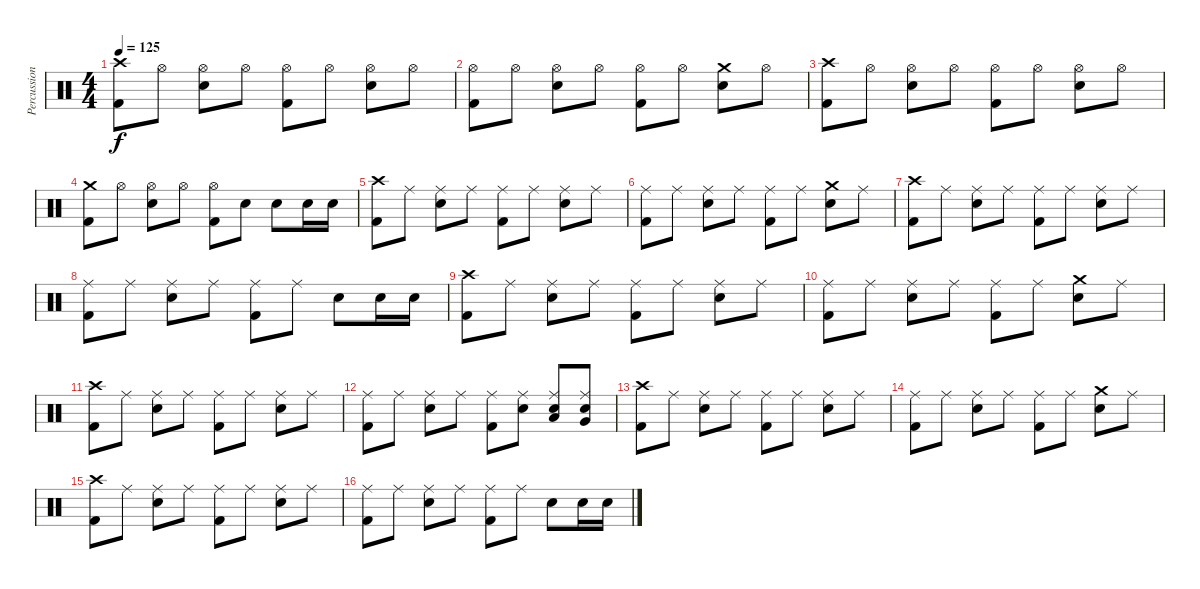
\track ("Percussion" "Percussion") {instrument percussion}
\staff {score}
\articulation defaults
\ts (4 4)
\tempo 125
\clef neutral
\ks c
("Crash high (hit)" "Kick (hit) 2").8{dy f} "Hi-Hat (open)".8 ("Hi-Hat (open)" "Snare (hit) 2").8 "Hi-Hat (open)".8 ("Hi-Hat (open)" "Kick (hit) 2").8 "Hi-Hat (open)".8 ("Hi-Hat (open)" "Snare (hit) 2").8 "Hi-Hat (open)".8 |
("Hi-Hat (open)" "Kick (hit) 2").8 "Hi-Hat (open)".8 ("Hi-Hat (open)" "Snare (hit) 2").8 "Hi-Hat (open)".8 ("Hi-Hat (open)" "Kick (hit) 2").8 "Hi-Hat (open)".8 ("Crash medium (hit)" "Snare (hit) 2").8 "Hi-Hat (open)".8 |
("Crash high (hit)" "Kick (hit) 2").8 "Hi-Hat (open)".8 ("Hi-Hat (open)" "Snare (hit) 2").8 "Hi-Hat (open)".8 ("Hi-Hat (open)" "Kick (hit) 2").8 "Hi-Hat (open)".8 ("Hi-Hat (open)" "Snare (hit) 2").8 "Hi-Hat (open)".8 |
("Crash medium (hit)" "Kick (hit) 2").8 "Hi-Hat (open)".8 ("Hi-Hat (open)" "Snare (hit) 2").8 "Hi-Hat (open)".8 ("Hi-Hat (open)" "Kick (hit) 2").8 "Snare (hit) 2".8 "Snare (hit) 2".8 "Snare (hit) 2".16 "Snare (hit) 2".16 |
("Crash high (hit)" "Kick (hit) 2").8 "Ride (middle)".8 ("Ride (middle)" "Snare (hit) 2").8 "Ride (middle)".8 ("Ride (middle)" "Kick (hit) 2").8 "Ride (middle)".8 ("Ride (middle)" "Snare (hit) 2").8 "Ride (middle)".8 |
("Ride (middle)" "Kick (hit) 2").8 "Ride (middle)".8 ("Ride (middle)" "Snare (hit) 2").8 "Ride (middle)".8 ("Ride (middle)" "Kick (hit) 2").8 "Ride (middle)".8 ("Crash medium (hit)" "Snare (hit) 2").8 "Ride (middle)".8 |
("Crash high (hit)" "Kick (hit) 2").8 "Ride (middle)".8 ("Ride (middle)" "Snare (hit) 2").8 "Ride (middle)".8 ("Ride (middle)" "Kick (hit) 2").8 "Ride (middle)".8 ("Ride (middle)" "Snare (hit) 2").8 "Ride (middle)".8 |
("Ride (middle)" "Kick (hit) 2").8 "Ride (middle)".8 ("Ride (middle)" "Snare (hit) 2").8 "Ride (middle)".8 ("Ride (middle)" "Kick (hit) 2").8 "Ride (middle)".8 "Snare (hit) 2".8 "Snare (hit) 2".16 "Snare (hit) 2".16 |
("Crash high (hit)" "Kick (hit) 2").8 "Ride (middle)".8 ("Ride (middle)" "Snare (hit) 2").8 "Ride (middle)".8 ("Ride (middle)" "Kick (hit) 2").8 "Ride (middle)".8 ("Ride (middle)" "Snare (hit) 2").8 "Ride (middle)".8 |
("Ride (middle)" "Kick (hit) 2").8 "Ride (middle)".8 ("Ride (middle)" "Snare (hit) 2").8 "Ride (middle)".8 ("Ride (middle)" "Kick (hit) 2").8 "Ride (middle)".8 ("Crash medium (hit)" "Snare (hit) 2").8 "Ride (middle)".8 |
("Crash high (hit)" "Kick (hit) 2").8 "Ride (middle)".8 ("Ride (middle)" "Snare (hit) 2").8 "Ride (middle)".8 ("Ride (middle)" "Kick (hit) 2").8 "Ride (middle)".8 ("Ride (middle)" "Snare (hit) 2").8 "Ride (middle)".8 |
("Ride (middle)" "Kick (hit) 2").8 "Ride (middle)".8 ("Ride (middle)" "Snare (hit) 2").8 "Ride (middle)".8 ("Ride (middle)" "Kick (hit) 2").8 ("Ride (middle)" "Snare (hit) 2").8 ("Ride (middle)" "Low Tom (hit)" "Snare (hit) 2").8 ("Ride (middle)" "Very Low Tom (hit)" "Snare (hit) 2").8 |
("Crash high (hit)" "Kick (hit) 2").8 "Ride (middle)".8 ("Ride (middle)" "Snare (hit) 2").8 "Ride (middle)".8 ("Ride (middle)" "Kick (hit) 2").8 "Ride (middle)".8 ("Ride (middle)" "Snare (hit) 2").8 "Ride (middle)".8 |
("Ride (middle)" "Kick (hit) 2").8 "Ride (middle)".8 ("Ride (middle)" "Snare (hit) 2").8 "Ride (middle)".8 ("Ride (middle)" "Kick (hit) 2").8 "Ride (middle)".8 ("Crash medium (hit)" "Snare (hit) 2").8 "Ride (middle)".8 |
("Crash high (hit)" "Kick (hit) 2").8 "Ride (middle)".8 ("Ride (middle)" "Snare (hit) 2").8 "Ride (middle)".8 ("Ride (middle)" "Kick (hit) 2").8 "Ride (middle)".8 ("Ride (middle)" "Snare (hit) 2").8 "Ride (middle)".8 |
("Ride (middle)" "Kick (hit) 2").8 "Ride (middle)".8 ("Ride (middle)" "Snare (hit) 2").8 "Ride (middle)".8 ("Ride (middle)" "Kick (hit) 2").8 "Ride (middle)".8 "Snare (hit) 2".8 "Snare (hit) 2".16 "Snare (hit) 2".16
